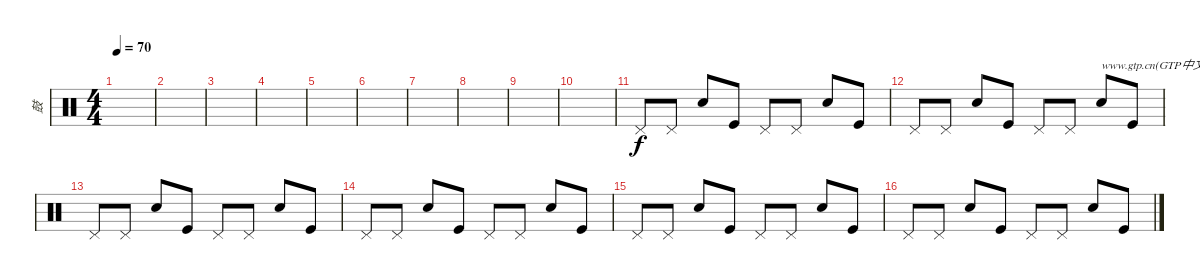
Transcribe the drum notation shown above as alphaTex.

\track ("鼓" "鼓") {instrument percussion}
\staff {score}
\articulation defaults
\ts (4 4)
\tempo 70
\clef neutral
\ks c
|
|
|
|
|
|
|
|
|
|
"Pedal Hi-Hat (hit)".8 "Pedal Hi-Hat (hit)".8 "Snare (hit) 2".8 "Kick (hit)".8 "Pedal Hi-Hat (hit)".8 "Pedal Hi-Hat (hit)".8 "Snare (hit) 2".8 "Kick (hit)".8 |
"Pedal Hi-Hat (hit)".8 "Pedal Hi-Hat (hit)".8 "Snare (hit) 2".8 "Kick (hit)".8 "Pedal Hi-Hat (hit)".8 "Pedal Hi-Hat (hit)".8 "Snare (hit) 2".8{txt "www.gtp.cn(GTP中文网)您提供优秀的GTP"} "Kick (hit)".8 |
"Pedal Hi-Hat (hit)".8 "Pedal Hi-Hat (hit)".8 "Snare (hit) 2".8 "Kick (hit)".8 "Pedal Hi-Hat (hit)".8 "Pedal Hi-Hat (hit)".8 "Snare (hit) 2".8 "Kick (hit)".8 |
"Pedal Hi-Hat (hit)".8 "Pedal Hi-Hat (hit)".8 "Snare (hit) 2".8 "Kick (hit)".8 "Pedal Hi-Hat (hit)".8 "Pedal Hi-Hat (hit)".8 "Snare (hit) 2".8 "Kick (hit)".8 |
"Pedal Hi-Hat (hit)".8 "Pedal Hi-Hat (hit)".8 "Snare (hit) 2".8 "Kick (hit)".8 "Pedal Hi-Hat (hit)".8 "Pedal Hi-Hat (hit)".8 "Snare (hit) 2".8 "Kick (hit)".8 |
"Pedal Hi-Hat (hit)".8 "Pedal Hi-Hat (hit)".8 "Snare (hit) 2".8 "Kick (hit)".8 "Pedal Hi-Hat (hit)".8 "Pedal Hi-Hat (hit)".8 "Snare (hit) 2".8 "Kick (hit)".8
